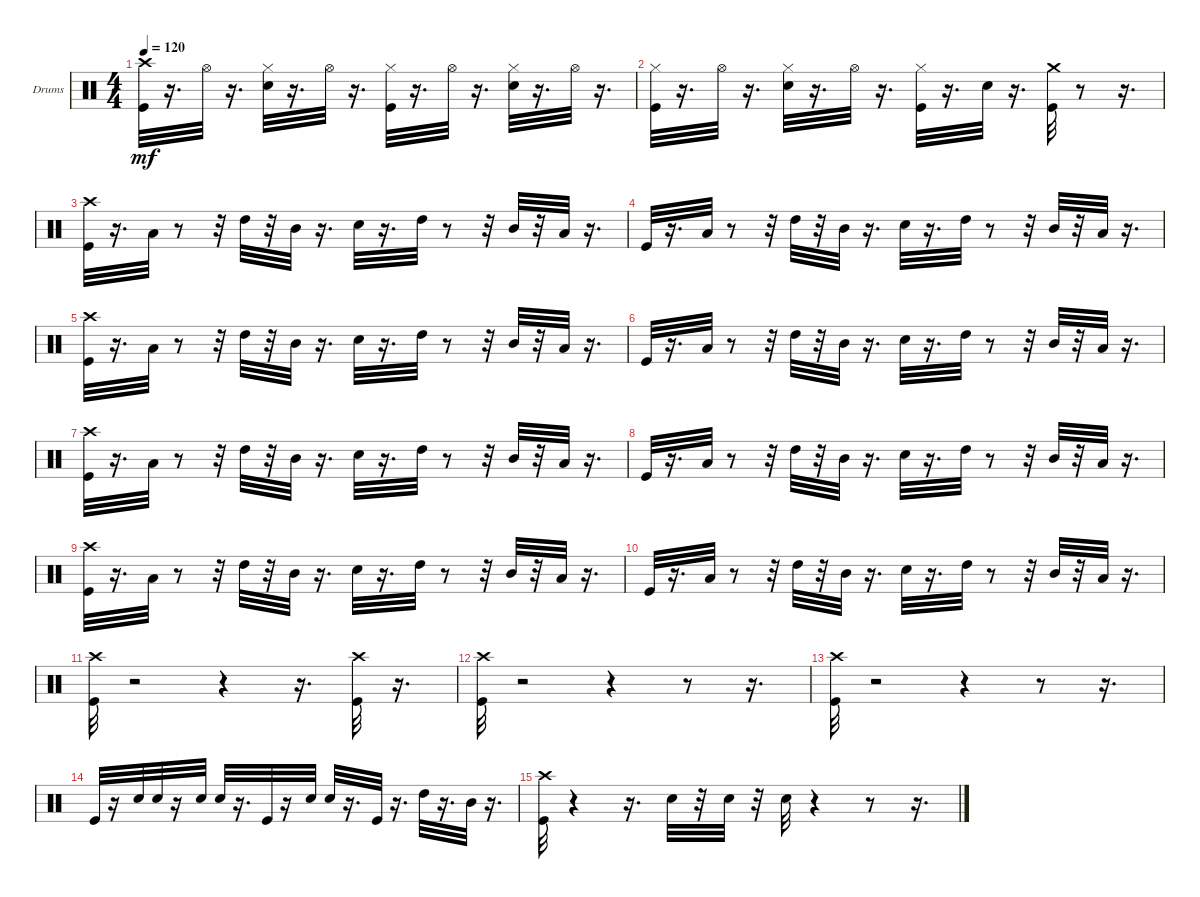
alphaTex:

\bracketExtendMode groupsimilarinstruments
\firstSystemTrackNameOrientation horizontal
\otherSystemsTrackNameOrientation horizontal
\track ("" "Drums") {instrument percussion}
\staff {score}
\articulation defaults
\ts (4 4)
\tempo 120
\clef neutral
\ks c
("Crash high (hit)" "Kick (hit)").32{dy mf} r.16{d} "Hi-Hat (open)".32 r.16{d} ("Snare (hit) 2" "Hi-Hat (closed)").32 r.16{d} "Hi-Hat (open)".32 r.16{d} ("Kick (hit)" "Hi-Hat (closed)").32 r.16{d} "Hi-Hat (open)".32 r.16{d} ("Snare (hit) 2" "Hi-Hat (closed)").32 r.16{d} "Hi-Hat (open)".32 r.16{d} |
("Hi-Hat (closed)" "Kick (hit)").32 r.16{d} "Hi-Hat (open)".32 r.16{d} ("Snare (hit) 2" "Hi-Hat (closed)").32 r.16{d} "Hi-Hat (open)".32 r.16{d} ("Kick (hit)" "Hi-Hat (closed)").32 r.16{d} "Snare (hit) 2".32 r.16{d} ("Crash medium (hit)" "Kick (hit)").32 r.8 r.16{d} |
("Crash high (hit)" "Kick (hit)").32 r.16{d} "Low Tom (hit)".32 r.8 r.32 "High Tom (hit)".32 r.32 "Mid Tom (hit)".32 r.16{d} "Snare (hit) 2".32 r.16{d} "High Tom (hit)".32 r.8 r.32 "Mid Tom (hit)".32 r.32 "Low Tom (hit)".32 r.16{d} |
"Kick (hit)".32 r.16{d} "Low Tom (hit)".32 r.8 r.32 "High Tom (hit)".32 r.32 "Mid Tom (hit)".32 r.16{d} "Snare (hit) 2".32 r.16{d} "High Tom (hit)".32 r.8 r.32 "Mid Tom (hit)".32 r.32 "Low Tom (hit)".32 r.16{d} |
("Crash high (hit)" "Kick (hit)").32 r.16{d} "Low Tom (hit)".32 r.8 r.32 "High Tom (hit)".32 r.32 "Mid Tom (hit)".32 r.16{d} "Snare (hit) 2".32 r.16{d} "High Tom (hit)".32 r.8 r.32 "Mid Tom (hit)".32 r.32 "Low Tom (hit)".32 r.16{d} |
"Kick (hit)".32 r.16{d} "Low Tom (hit)".32 r.8 r.32 "High Tom (hit)".32 r.32 "Mid Tom (hit)".32 r.16{d} "Snare (hit) 2".32 r.16{d} "High Tom (hit)".32 r.8 r.32 "Mid Tom (hit)".32 r.32 "Low Tom (hit)".32 r.16{d} |
("Crash high (hit)" "Kick (hit)").32 r.16{d} "Low Tom (hit)".32 r.8 r.32 "High Tom (hit)".32 r.32 "Mid Tom (hit)".32 r.16{d} "Snare (hit) 2".32 r.16{d} "High Tom (hit)".32 r.8 r.32 "Mid Tom (hit)".32 r.32 "Low Tom (hit)".32 r.16{d} |
"Kick (hit)".32 r.16{d} "Low Tom (hit)".32 r.8 r.32 "High Tom (hit)".32 r.32 "Mid Tom (hit)".32 r.16{d} "Snare (hit) 2".32 r.16{d} "High Tom (hit)".32 r.8 r.32 "Mid Tom (hit)".32 r.32 "Low Tom (hit)".32 r.16{d} |
("Crash high (hit)" "Kick (hit)").32 r.16{d} "Low Tom (hit)".32 r.8 r.32 "High Tom (hit)".32 r.32 "Mid Tom (hit)".32 r.16{d} "Snare (hit) 2".32 r.16{d} "High Tom (hit)".32 r.8 r.32 "Mid Tom (hit)".32 r.32 "Low Tom (hit)".32 r.16{d} |
"Kick (hit)".32 r.16{d} "Low Tom (hit)".32 r.8 r.32 "High Tom (hit)".32 r.32 "Mid Tom (hit)".32 r.16{d} "Snare (hit) 2".32 r.16{d} "High Tom (hit)".32 r.8 r.32 "Mid Tom (hit)".32 r.32 "Low Tom (hit)".32 r.16{d} |
("Crash high (hit)" "Kick (hit)").32 r.2 r.4 r.16{d} ("Crash high (hit)" "Kick (hit)").32 r.16{d} |
("Crash high (hit)" "Kick (hit)").32 r.2 r.4 r.8 r.16{d} |
("Crash high (hit)" "Kick (hit)").32 r.2 r.4 r.8 r.16{d} |
"Kick (hit)".32 r.16 "Snare (hit) 2".32 "Snare (hit) 2".32 r.16 "Snare (hit) 2".32 "Snare (hit) 2".32 r.16{d} "Kick (hit)".32 r.16 "Snare (hit) 2".32 "Snare (hit) 2".32 r.16{d} "Kick (hit)".32 r.16{d} "High Tom (hit)".32 r.16{d} "Mid Tom (hit)".32 r.16{d} |
("Crash high (hit)" "Kick (hit)").32 r.4 r.16{d} "Snare (hit) 2".32 r.32 "Snare (hit) 2".32 r.32 "Snare (hit) 2".32 r.4 r.8 r.16{d}
